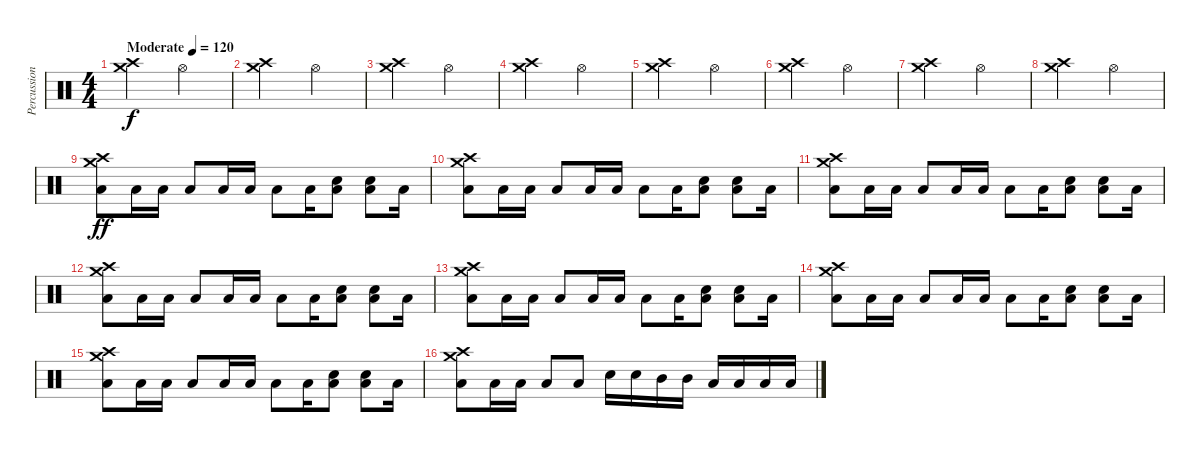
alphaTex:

\track ("Percussion" "Percussion") {instrument percussion}
\staff {score}
\articulation defaults
\ts (4 4)
\tempo (120 "Moderate")
\clef neutral
\ks c
("Crash medium (hit)" "Crash high (hit)").2{dy f} "Hi-Hat (open)".2 |
("Crash medium (hit)" "Crash high (hit)").2 "Hi-Hat (open)".2 |
("Crash medium (hit)" "Crash high (hit)").2 "Hi-Hat (open)".2 |
("Crash medium (hit)" "Crash high (hit)").2 "Hi-Hat (open)".2 |
("Crash medium (hit)" "Crash high (hit)").2 "Hi-Hat (open)".2 |
("Crash medium (hit)" "Crash high (hit)").2 "Hi-Hat (open)".2 |
("Crash medium (hit)" "Crash high (hit)").2 "Hi-Hat (open)".2 |
("Crash medium (hit)" "Crash high (hit)").2 "Hi-Hat (open)".2 |
("Crash high (hit)" "Crash medium (hit)" "Low Floor Tom (hit)").8{dy ff} "Low Floor Tom (hit)".16 "Low Floor Tom (hit)".16 "Low Floor Tom (hit)".8 "Low Floor Tom (hit)".16 "Low Floor Tom (hit)".16 "Low Floor Tom (hit)".8 "Low Floor Tom (hit)".16 ("Snare (hit) 2" "Low Floor Tom (hit)").8 ("Snare (hit) 2" "Low Floor Tom (hit)").8 "Low Floor Tom (hit)".16 |
("Crash high (hit)" "Crash medium (hit)" "Low Floor Tom (hit)").8 "Low Floor Tom (hit)".16 "Low Floor Tom (hit)".16 "Low Floor Tom (hit)".8 "Low Floor Tom (hit)".16 "Low Floor Tom (hit)".16 "Low Floor Tom (hit)".8 "Low Floor Tom (hit)".16 ("Snare (hit) 2" "Low Floor Tom (hit)").8 ("Snare (hit) 2" "Low Floor Tom (hit)").8 "Low Floor Tom (hit)".16 |
("Crash high (hit)" "Crash medium (hit)" "Low Floor Tom (hit)").8 "Low Floor Tom (hit)".16 "Low Floor Tom (hit)".16 "Low Floor Tom (hit)".8 "Low Floor Tom (hit)".16 "Low Floor Tom (hit)".16 "Low Floor Tom (hit)".8 "Low Floor Tom (hit)".16 ("Snare (hit) 2" "Low Floor Tom (hit)").8 ("Snare (hit) 2" "Low Floor Tom (hit)").8 "Low Floor Tom (hit)".16 |
("Crash high (hit)" "Crash medium (hit)" "Low Floor Tom (hit)").8 "Low Floor Tom (hit)".16 "Low Floor Tom (hit)".16 "Low Floor Tom (hit)".8 "Low Floor Tom (hit)".16 "Low Floor Tom (hit)".16 "Low Floor Tom (hit)".8 "Low Floor Tom (hit)".16 ("Snare (hit) 2" "Low Floor Tom (hit)").8 ("Snare (hit) 2" "Low Floor Tom (hit)").8 "Low Floor Tom (hit)".16 |
("Crash high (hit)" "Crash medium (hit)" "Low Floor Tom (hit)").8 "Low Floor Tom (hit)".16 "Low Floor Tom (hit)".16 "Low Floor Tom (hit)".8 "Low Floor Tom (hit)".16 "Low Floor Tom (hit)".16 "Low Floor Tom (hit)".8 "Low Floor Tom (hit)".16 ("Snare (hit) 2" "Low Floor Tom (hit)").8 ("Snare (hit) 2" "Low Floor Tom (hit)").8 "Low Floor Tom (hit)".16 |
("Crash high (hit)" "Crash medium (hit)" "Low Floor Tom (hit)").8 "Low Floor Tom (hit)".16 "Low Floor Tom (hit)".16 "Low Floor Tom (hit)".8 "Low Floor Tom (hit)".16 "Low Floor Tom (hit)".16 "Low Floor Tom (hit)".8 "Low Floor Tom (hit)".16 ("Snare (hit) 2" "Low Floor Tom (hit)").8 ("Snare (hit) 2" "Low Floor Tom (hit)").8 "Low Floor Tom (hit)".16 |
("Crash high (hit)" "Crash medium (hit)" "Low Floor Tom (hit)").8 "Low Floor Tom (hit)".16 "Low Floor Tom (hit)".16 "Low Floor Tom (hit)".8 "Low Floor Tom (hit)".16 "Low Floor Tom (hit)".16 "Low Floor Tom (hit)".8 "Low Floor Tom (hit)".16 ("Snare (hit) 2" "Low Floor Tom (hit)").8 ("Snare (hit) 2" "Low Floor Tom (hit)").8 "Low Floor Tom (hit)".16 |
("Crash high (hit)" "Crash medium (hit)" "Low Floor Tom (hit)").8 "Low Floor Tom (hit)".16 "Low Floor Tom (hit)".16 "Low Floor Tom (hit)".8 "Low Floor Tom (hit)".8 "Snare (hit) 2".16 "Snare (hit) 2".16 "Mid Tom (hit)".16 "Mid Tom (hit)".16 "Low Tom (hit)".16 "Low Tom (hit)".16 "Low Floor Tom (hit)".16 "Low Floor Tom (hit)".16
